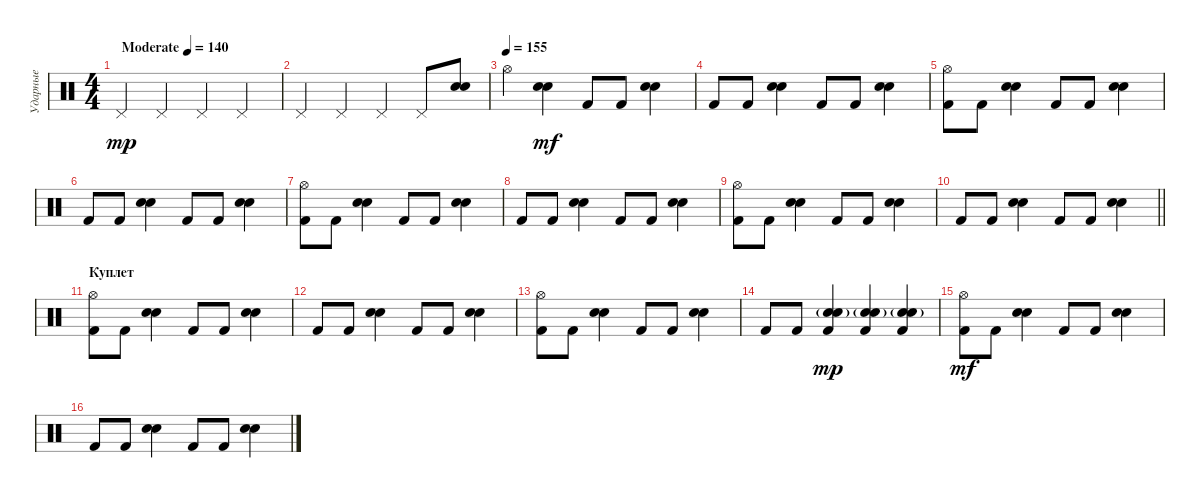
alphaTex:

\track ("Ударные" "Ударные") {instrument percussion}
\staff {score}
\articulation defaults
\ts (4 4)
\tempo (140 "Moderate")
\clef neutral
\ks c "Pedal Hi-Hat (hit)".4{dy mp} "Pedal Hi-Hat (hit)".4 "Pedal Hi-Hat (hit)".4 "Pedal Hi-Hat (hit)".4
|
"Pedal Hi-Hat (hit)".4 "Pedal Hi-Hat (hit)".4 "Pedal Hi-Hat (hit)".4 "Pedal Hi-Hat (hit)".8 ("Electric Snare (hit)" "Snare (hit) 2").8 |
\tempo (155)
"Hi-Hat (open)".4 ("Electric Snare (hit)" "Snare (hit) 2").4{dy mf} "Kick (hit) 2".8 "Kick (hit) 2".8 ("Electric Snare (hit)" "Snare (hit) 2").4 |
"Kick (hit) 2".8 "Kick (hit) 2".8 ("Electric Snare (hit)" "Snare (hit) 2").4 "Kick (hit) 2".8 "Kick (hit) 2".8 ("Electric Snare (hit)" "Snare (hit) 2").4 |
("Hi-Hat (open)" "Kick (hit) 2").8 "Kick (hit) 2".8 ("Electric Snare (hit)" "Snare (hit) 2").4 "Kick (hit) 2".8 "Kick (hit) 2".8 ("Electric Snare (hit)" "Snare (hit) 2").4 |
"Kick (hit) 2".8 "Kick (hit) 2".8 ("Electric Snare (hit)" "Snare (hit) 2").4 "Kick (hit) 2".8 "Kick (hit) 2".8 ("Electric Snare (hit)" "Snare (hit) 2").4 |
("Hi-Hat (open)" "Kick (hit) 2").8 "Kick (hit) 2".8 ("Electric Snare (hit)" "Snare (hit) 2").4 "Kick (hit) 2".8 "Kick (hit) 2".8 ("Electric Snare (hit)" "Snare (hit) 2").4 |
"Kick (hit) 2".8 "Kick (hit) 2".8 ("Electric Snare (hit)" "Snare (hit) 2").4 "Kick (hit) 2".8 "Kick (hit) 2".8 ("Electric Snare (hit)" "Snare (hit) 2").4 |
("Hi-Hat (open)" "Kick (hit) 2").8 "Kick (hit) 2".8 ("Electric Snare (hit)" "Snare (hit) 2").4 "Kick (hit) 2".8 "Kick (hit) 2".8 ("Electric Snare (hit)" "Snare (hit) 2").4 |
\barLineRight lightlight "Kick (hit) 2".8 "Kick (hit) 2".8
("Electric Snare (hit)" "Snare (hit) 2").4 "Kick (hit) 2".8 "Kick (hit) 2".8 ("Electric Snare (hit)" "Snare (hit) 2").4 |
\section ("" "Куплет")
("Hi-Hat (open)" "Kick (hit) 2").8 "Kick (hit) 2".8 ("Electric Snare (hit)" "Snare (hit) 2").4 "Kick (hit) 2".8 "Kick (hit) 2".8 ("Electric Snare (hit)" "Snare (hit) 2").4 |
"Kick (hit) 2".8 "Kick (hit) 2".8 ("Electric Snare (hit)" "Snare (hit) 2").4 "Kick (hit) 2".8 "Kick (hit) 2".8 ("Electric Snare (hit)" "Snare (hit) 2").4 |
("Hi-Hat (open)" "Kick (hit) 2").8 "Kick (hit) 2".8 ("Electric Snare (hit)" "Snare (hit) 2").4 "Kick (hit) 2".8 "Kick (hit) 2".8 ("Electric Snare (hit)" "Snare (hit) 2").4 |
"Kick (hit) 2".8 "Kick (hit) 2".8 ("Electric Snare (hit)" "Kick (hit) 2" "Snare (hit) 2"{g}).4{dy mp} ("Electric Snare (hit)" "Kick (hit) 2" "Snare (hit) 2"{g}).4 ("Electric Snare (hit)" "Kick (hit) 2" "Snare (hit) 2"{g}).4 |
("Hi-Hat (open)" "Kick (hit) 2").8{dy mf} "Kick (hit) 2".8 ("Electric Snare (hit)" "Snare (hit) 2").4 "Kick (hit) 2".8 "Kick (hit) 2".8 ("Electric Snare (hit)" "Snare (hit) 2").4 |
"Kick (hit) 2".8 "Kick (hit) 2".8 ("Electric Snare (hit)" "Snare (hit) 2").4 "Kick (hit) 2".8 "Kick (hit) 2".8 ("Electric Snare (hit)" "Snare (hit) 2").4
